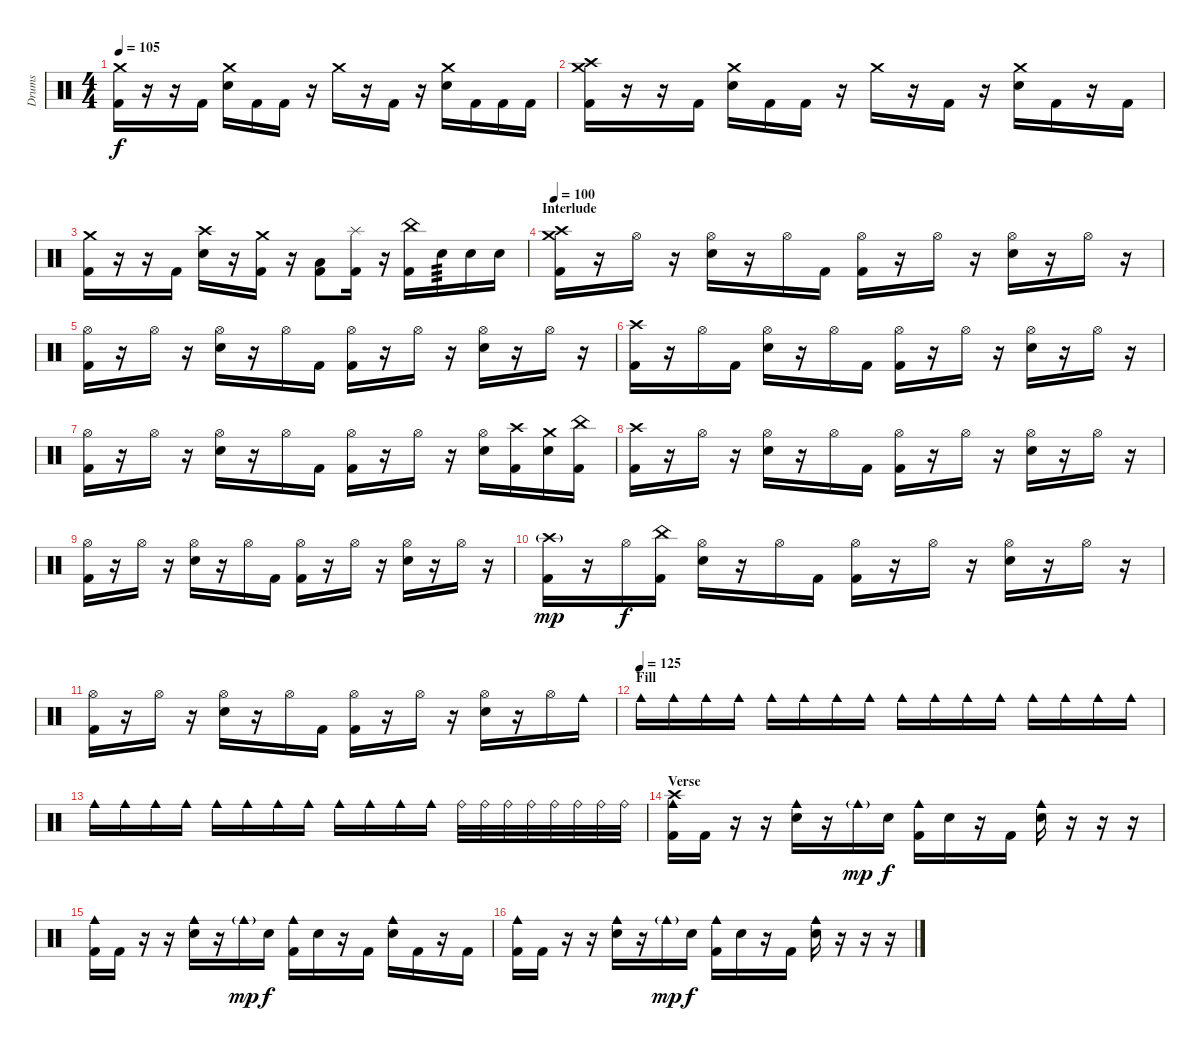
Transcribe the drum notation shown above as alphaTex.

\track ("Drums" "Drums") {instrument percussion}
\staff {score}
\articulation defaults
\ts (4 4)
\tempo 105
\clef neutral
\ks c
("Crash medium (hit)" "Kick (hit) 2").16{dy f} r.16 r.16 "Kick (hit) 2".16 ("Crash medium (hit)" "Electric Snare (hit)").16 "Kick (hit) 2".16 "Kick (hit) 2".16 r.16 "Crash medium (hit)".16 r.16 "Kick (hit) 2".16 r.16 ("Crash medium (hit)" "Electric Snare (hit)").16 "Kick (hit) 2".16 "Kick (hit) 2".16 "Kick (hit) 2".16 |
("Crash medium (hit)" "Crash high (hit)" "Kick (hit) 2").16 r.16 r.16 "Kick (hit) 2".16 ("Crash medium (hit)" "Electric Snare (hit)").16 "Kick (hit) 2".16 "Kick (hit) 2".16 r.16 "Crash medium (hit)".16 r.16 "Kick (hit) 2".16 r.16 ("Crash medium (hit)" "Electric Snare (hit)").16 "Kick (hit) 2".16 r.16 "Kick (hit) 2".16 |
("Crash medium (hit)" "Kick (hit) 2").16 r.16 r.16 "Kick (hit) 2".16 ("Crash high (hit)" "Electric Snare (hit)").16 r.16 ("Crash medium (hit)" "Kick (hit) 2").16 r.16 ("Low Floor Tom (hit)" "Kick (hit) 2").8 ("Splash (hit)" "Kick (hit) 2").16 r.16 ("China (hit)" "Kick (hit) 2").16 "Electric Snare (hit)".16{tp 3} "Electric Snare (hit)".16 "Electric Snare (hit)".16 |
\section ("" "Interlude")
\tempo 100
("Crash high (hit)" "Crash medium (hit)" "Kick (hit) 2").16 r.16 "Hi-Hat (open)".16 r.16 ("Hi-Hat (open)" "Electric Snare (hit)").16 r.16 "Hi-Hat (open)".16 "Kick (hit) 2".16 ("Hi-Hat (open)" "Kick (hit) 2").16 r.16 "Hi-Hat (open)".16 r.16 ("Hi-Hat (open)" "Electric Snare (hit)").16 r.16 "Hi-Hat (open)".16 r.16 |
("Hi-Hat (open)" "Kick (hit) 2").16 r.16 "Hi-Hat (open)".16 r.16 ("Hi-Hat (open)" "Electric Snare (hit)").16 r.16 "Hi-Hat (open)".16 "Kick (hit) 2".16 ("Hi-Hat (open)" "Kick (hit) 2").16 r.16 "Hi-Hat (open)".16 r.16 ("Hi-Hat (open)" "Electric Snare (hit)").16 r.16 "Hi-Hat (open)".16 r.16 |
("Crash high (hit)" "Kick (hit) 2").16 r.16 "Hi-Hat (open)".16 "Kick (hit) 2".16 ("Hi-Hat (open)" "Electric Snare (hit)").16 r.16 "Hi-Hat (open)".16 "Kick (hit) 2".16 ("Hi-Hat (open)" "Kick (hit) 2").16 r.16 "Hi-Hat (open)".16 r.16 ("Hi-Hat (open)" "Electric Snare (hit)").16 r.16 "Hi-Hat (open)".16 r.16 |
("Hi-Hat (open)" "Kick (hit) 2").16 r.16 "Hi-Hat (open)".16 r.16 ("Hi-Hat (open)" "Electric Snare (hit)").16 r.16 "Hi-Hat (open)".16 "Kick (hit) 2".16 ("Hi-Hat (open)" "Kick (hit) 2").16 r.16 "Hi-Hat (open)".16 r.16 ("Hi-Hat (open)" "Electric Snare (hit)").16 ("Crash high (hit)" "Kick (hit) 2").16 ("Crash medium (hit)" "Electric Snare (hit)").16 ("China (hit)" "Kick (hit) 2").16 |
("Crash high (hit)" "Kick (hit) 2").16 r.16 "Hi-Hat (open)".16 r.16 ("Hi-Hat (open)" "Electric Snare (hit)").16 r.16 "Hi-Hat (open)".16 "Kick (hit) 2".16 ("Hi-Hat (open)" "Kick (hit) 2").16 r.16 "Hi-Hat (open)".16 r.16 ("Hi-Hat (open)" "Electric Snare (hit)").16 r.16 "Hi-Hat (open)".16 r.16 |
("Hi-Hat (open)" "Kick (hit) 2").16 r.16 "Hi-Hat (open)".16 r.16 ("Hi-Hat (open)" "Electric Snare (hit)").16 r.16 "Hi-Hat (open)".16 "Kick (hit) 2".16 ("Hi-Hat (open)" "Kick (hit) 2").16 r.16 "Hi-Hat (open)".16 r.16 ("Hi-Hat (open)" "Electric Snare (hit)").16 r.16 "Hi-Hat (open)".16 r.16 |
("Crash high (hit)"{g} "Kick (hit) 2").16{dy mp} r.16 "Hi-Hat (open)".16{dy f} ("China (hit)" "Kick (hit) 2").16 ("Hi-Hat (open)" "Electric Snare (hit)").16 r.16 "Hi-Hat (open)".16 "Kick (hit) 2".16 ("Hi-Hat (open)" "Kick (hit) 2").16 r.16 "Hi-Hat (open)".16 r.16 ("Hi-Hat (open)" "Electric Snare (hit)").16 r.16 "Hi-Hat (open)".16 r.16 |
("Hi-Hat (open)" "Kick (hit) 2").16 r.16 "Hi-Hat (open)".16 r.16 ("Hi-Hat (open)" "Electric Snare (hit)").16 r.16 "Hi-Hat (open)".16 "Kick (hit) 2".16 ("Hi-Hat (open)" "Kick (hit) 2").16 r.16 "Hi-Hat (open)".16 r.16 ("Hi-Hat (open)" "Electric Snare (hit)").16 r.16 "Hi-Hat (open)".16 "Cowbell medium (hit)".16 |
\section ("" "Fill")
\tempo (125)
"Cowbell medium (hit)".16 "Cowbell medium (hit)".16 "Cowbell medium (hit)".16 "Cowbell medium (hit)".16 "Cowbell medium (hit)".16 "Cowbell medium (hit)".16 "Cowbell medium (hit)".16 "Cowbell medium (hit)".16 "Cowbell medium (hit)".16 "Cowbell medium (hit)".16 "Cowbell medium (hit)".16 "Cowbell medium (hit)".16 "Cowbell medium (hit)".16 "Cowbell medium (hit)".16 "Cowbell medium (hit)".16 "Cowbell medium (hit)".16 |
"Cowbell medium (hit)".16 "Cowbell medium (hit)".16 "Cowbell medium (hit)".16 "Cowbell medium (hit)".16 "Cowbell medium (hit)".16 "Cowbell medium (hit)".16 "Cowbell medium (hit)".16 "Cowbell medium (hit)".16 "Cowbell medium (hit)".16 "Cowbell medium (hit)".16 "Cowbell medium (hit)".16 "Cowbell medium (hit)".16 "Ride (bell)".32 "Ride (bell)".32 "Ride (bell)".32 "Ride (bell)".32 "Ride (bell)".32 "Ride (bell)".32 "Ride (bell)".32 "Ride (bell)".32 |
\section ("" "Verse")
("Cowbell medium (hit)" "Crash high (hit)" "Kick (hit) 2").16 "Kick (hit) 2".16 r.16 r.16 ("Cowbell medium (hit)" "Electric Snare (hit)").16 r.16 "Cowbell medium (hit)"{g}.16{dy mp} "Electric Snare (hit)".16{dy f} ("Cowbell medium (hit)" "Kick (hit) 2").16 "Electric Snare (hit)".16 r.16 "Kick (hit) 2".16 ("Cowbell medium (hit)" "Electric Snare (hit)").16 r.16 r.16 r.16 |
("Cowbell medium (hit)" "Kick (hit) 2").16 "Kick (hit) 2".16 r.16 r.16 ("Cowbell medium (hit)" "Electric Snare (hit)").16 r.16 "Cowbell medium (hit)"{g}.16{dy mp} "Electric Snare (hit)".16{dy f} ("Cowbell medium (hit)" "Kick (hit) 2").16 "Electric Snare (hit)".16 r.16 "Kick (hit) 2".16 ("Cowbell medium (hit)" "Electric Snare (hit)").16 "Kick (hit) 2".16 r.16 "Kick (hit) 2".16 |
("Cowbell medium (hit)" "Kick (hit) 2").16 "Kick (hit) 2".16 r.16 r.16 ("Cowbell medium (hit)" "Electric Snare (hit)").16 r.16 "Cowbell medium (hit)"{g}.16{dy mp} "Electric Snare (hit)".16{dy f} ("Cowbell medium (hit)" "Kick (hit) 2").16 "Electric Snare (hit)".16 r.16 "Kick (hit) 2".16 ("Cowbell medium (hit)" "Electric Snare (hit)").16 r.16 r.16 r.16
